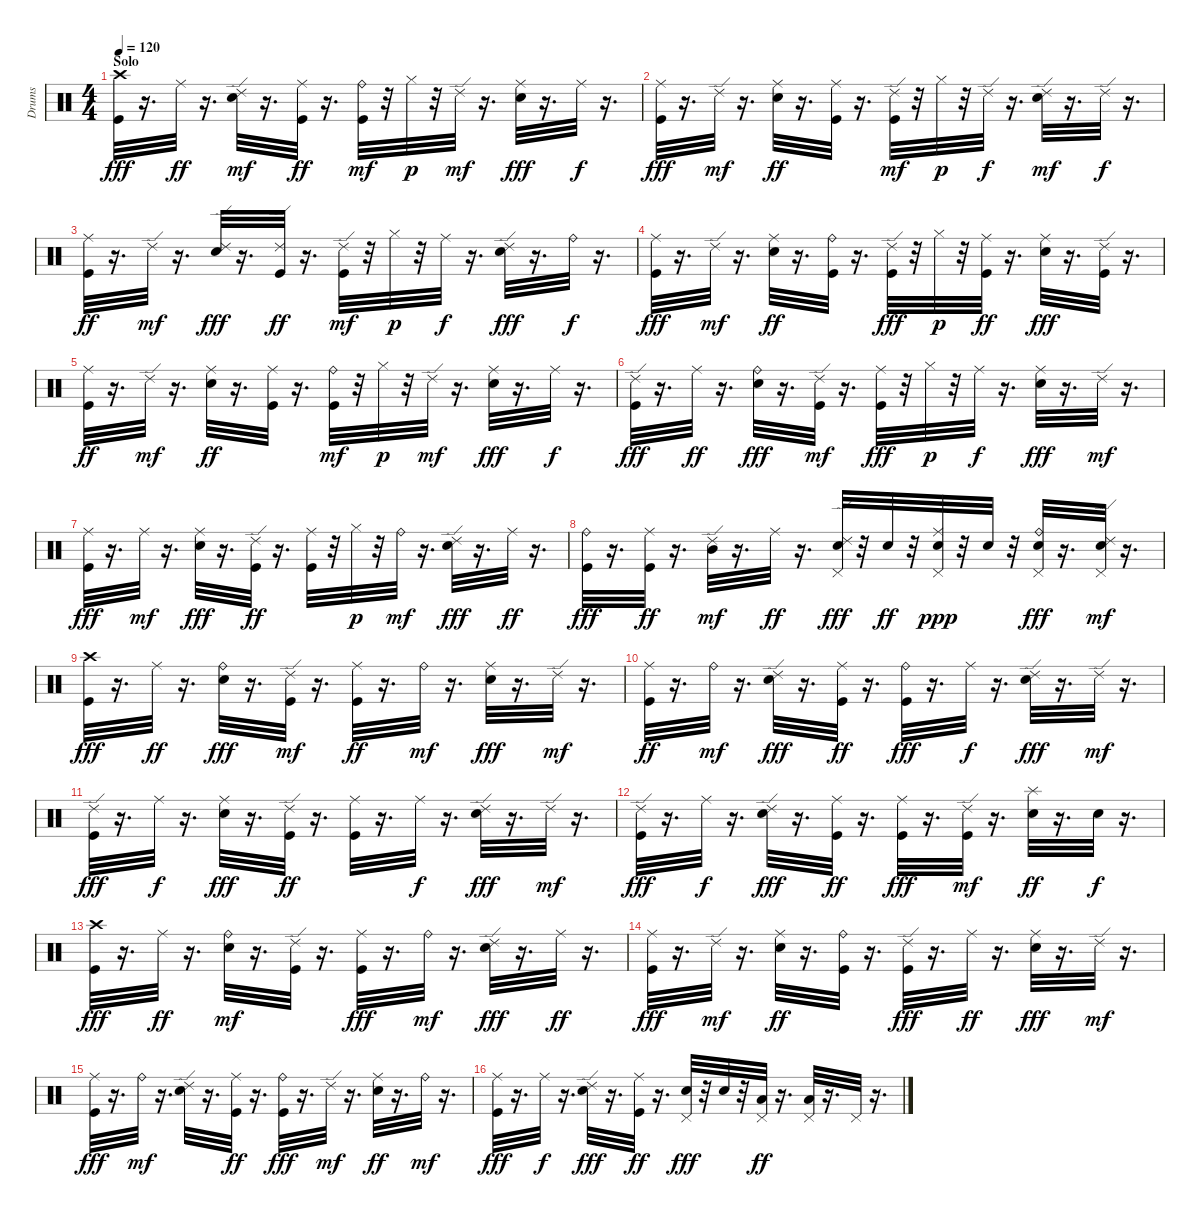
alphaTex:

\track ("Drums" "Drums") {instrument percussion}
\staff {score}
\articulation defaults
\ts (4 4)
\section ("" "Solo")
\tempo 120
\clef neutral
\ks c
("Crash high (hit)" "Kick (hit)").32{dy fff} r.16{d} "Ride (middle)".32{dy ff} r.16{d} ("Electric Snare (hit)" "Ride (edge) 2").32{dy mf} r.16{d} ("Ride (middle)" "Kick (hit)").32{dy ff} r.16{d} ("Kick (hit)" "Ride (bell)").32{dy mf} r.32 "Hi-Hat (closed)".32{dy p} r.32 "Ride (edge) 2".32{dy mf} r.16{d} ("Ride (middle)" "Electric Snare (hit)").32{dy fff} r.16{d} "Ride (middle)".32{dy f} r.16{d} |
("Ride (middle)" "Kick (hit)").32{dy fff} r.16{d} "Ride (edge) 2".32{dy mf} r.16{d} ("Electric Snare (hit)" "Ride (middle)").32{dy ff} r.16{d} ("Ride (middle)" "Kick (hit)").32 r.16{d} ("Kick (hit)" "Ride (edge) 2").32{dy mf} r.32 "Hi-Hat (closed)".32{dy p} r.32 "Ride (edge) 2".32{dy f} r.16{d} ("Electric Snare (hit)" "Ride (edge) 2").32{dy mf} r.16{d} "Ride (edge) 2".32{dy f} r.16{d} |
("Kick (hit)" "Ride (middle)").32{dy ff} r.16{d} "Ride (edge) 2".32{dy mf} r.16{d} ("Ride (edge) 2" "Electric Snare (hit)").32{dy fff} r.16{d} ("Kick (hit)" "Ride (edge) 2").32{dy ff} r.16{d} ("Kick (hit)" "Ride (edge) 2").32{dy mf} r.32 "Hi-Hat (closed)".32{dy p} r.32 "Ride (middle)".32{dy f} r.16{d} ("Ride (edge) 2" "Electric Snare (hit)").32{dy fff} r.16{d} "Ride (bell)".32{dy f} r.16{d} |
("Ride (middle)" "Kick (hit)").32{dy fff} r.16{d} "Ride (edge) 2".32{dy mf} r.16{d} ("Electric Snare (hit)" "Ride (middle)").32{dy ff} r.16{d} ("Ride (bell)" "Kick (hit)").32 r.16{d} ("Ride (edge) 2" "Kick (hit)").32{dy fff} r.32 "Hi-Hat (closed)".32{dy p} r.32 ("Kick (hit)" "Ride (middle)").32{dy ff} r.16{d} ("Ride (middle)" "Electric Snare (hit)").32{dy fff} r.16{d} ("Ride (edge) 2" "Kick (hit)").32 r.16{d} |
("Kick (hit)" "Ride (middle)").32{dy ff} r.16{d} "Ride (edge) 2".32{dy mf} r.16{d} ("Electric Snare (hit)" "Ride (middle)").32{dy ff} r.16{d} ("Ride (middle)" "Kick (hit)").32 r.16{d} ("Kick (hit)" "Ride (bell)").32{dy mf} r.32 "Hi-Hat (closed)".32{dy p} r.32 "Ride (edge) 2".32{dy mf} r.16{d} ("Ride (middle)" "Electric Snare (hit)").32{dy fff} r.16{d} "Ride (middle)".32{dy f} r.16{d} |
("Ride (edge) 2" "Kick (hit)").32{dy fff} r.16{d} "Ride (middle)".32{dy ff} r.16{d} ("Ride (bell)" "Electric Snare (hit)").32{dy fff} r.16{d} ("Kick (hit)" "Ride (edge) 2").32{dy mf} r.16{d} ("Ride (middle)" "Kick (hit)").32{dy fff} r.32 "Hi-Hat (closed)".32{dy p} r.32 "Ride (middle)".32{dy f} r.16{d} ("Electric Snare (hit)" "Ride (middle)").32{dy fff} r.16{d} "Ride (edge) 2".32{dy mf} r.16{d} |
("Ride (middle)" "Kick (hit)").32{dy fff} r.16{d} "Ride (middle)".32{dy mf} r.16{d} ("Ride (middle)" "Electric Snare (hit)").32{dy fff} r.16{d} ("Ride (edge) 2" "Kick (hit)").32{dy ff} r.16{d} ("Kick (hit)" "Ride (middle)").32 r.32 "Hi-Hat (closed)".32{dy p} r.32 "Ride (bell)".32{dy mf} r.16{d} ("Ride (edge) 2" "Electric Snare (hit)").32{dy fff} r.16{d} "Ride (middle)".32{dy ff} r.16{d} |
("Ride (bell)" "Kick (hit)").32{dy fff} r.16{d} ("Kick (hit)" "Ride (middle)").32{dy ff} r.16{d} ("Mid Tom (hit)" "Ride (edge) 2").32{dy mf} r.16{d} "Ride (middle)".32{dy ff} r.16{d} ("Ride (edge) 2" "Pedal Hi-Hat (hit)" "Electric Snare (hit)").32{dy fff} r.32 "Electric Snare (hit)".32{dy ff} r.32 ("Ride (middle)" "Pedal Hi-Hat (hit)" "Electric Snare (hit)").32{dy ppp} r.32 "Electric Snare (hit)".32 r.32 ("Ride (bell)" "Pedal Hi-Hat (hit)" "Electric Snare (hit)").32{dy fff} r.16{d} ("Electric Snare (hit)" "Ride (edge) 2" "Pedal Hi-Hat (hit)").32{dy mf} r.16{d} |
("Crash high (hit)" "Kick (hit)").32{dy fff} r.16{d} "Ride (middle)".32{dy ff} r.16{d} ("Ride (bell)" "Electric Snare (hit)").32{dy fff} r.16{d} ("Kick (hit)" "Ride (edge) 2").32{dy mf} r.16{d} ("Kick (hit)" "Ride (middle)").32{dy ff} r.16{d} "Ride (bell)".32{dy mf} r.16{d} ("Ride (middle)" "Electric Snare (hit)").32{dy fff} r.16{d} "Ride (edge) 2".32{dy mf} r.16{d} |
("Kick (hit)" "Ride (middle)").32{dy ff} r.16{d} "Ride (bell)".32{dy mf} r.16{d} ("Ride (edge) 2" "Electric Snare (hit)").32{dy fff} r.16{d} ("Ride (middle)" "Kick (hit)").32{dy ff} r.16{d} ("Ride (bell)" "Kick (hit)").32{dy fff} r.16{d} "Ride (middle)".32{dy f} r.16{d} ("Ride (edge) 2" "Electric Snare (hit)").32{dy fff} r.16{d} "Ride (edge) 2".32{dy mf} r.16{d} |
("Ride (edge) 2" "Kick (hit)").32{dy fff} r.16{d} "Ride (middle)".32{dy f} r.16{d} ("Ride (middle)" "Electric Snare (hit)").32{dy fff} r.16{d} ("Ride (edge) 2" "Kick (hit)").32{dy ff} r.16{d} ("Kick (hit)" "Ride (middle)").32 r.16{d} "Ride (middle)".32{dy f} r.16{d} ("Ride (edge) 2" "Electric Snare (hit)").32{dy fff} r.16{d} "Ride (edge) 2".32{dy mf} r.16{d} |
("Kick (hit)" "Ride (edge) 2").32{dy fff} r.16{d} "Ride (middle)".32{dy f} r.16{d} ("Ride (edge) 2" "Electric Snare (hit)").32{dy fff} r.16{d} ("Ride (middle)" "Kick (hit)").32{dy ff} r.16{d} ("Kick (hit)" "Ride (middle)").32{dy fff} r.16{d} ("Kick (hit)" "Ride (edge) 2").32{dy mf} r.16{d} ("Electric Snare (hit)" "Splash (hit)").32{dy ff} r.16{d} "Electric Snare (hit)".32{dy f} r.16{d} |
("Crash high (hit)" "Kick (hit)").32{dy fff} r.16{d} "Ride (middle)".32{dy ff} r.16{d} ("Electric Snare (hit)" "Ride (bell)").32{dy mf} r.16{d} ("Kick (hit)" "Ride (edge) 2").32 r.16{d} ("Ride (middle)" "Kick (hit)").32{dy fff} r.16{d} "Ride (bell)".32{dy mf} r.16{d} ("Ride (edge) 2" "Electric Snare (hit)").32{dy fff} r.16{d} "Ride (middle)".32{dy ff} r.16{d} |
("Kick (hit)" "Ride (middle)").32{dy fff} r.16{d} "Ride (edge) 2".32{dy mf} r.16{d} ("Electric Snare (hit)" "Ride (middle)").32{dy ff} r.16{d} ("Ride (bell)" "Kick (hit)").32 r.16{d} ("Ride (edge) 2" "Kick (hit)").32{dy fff} r.16{d} "Ride (middle)".32{dy ff} r.16{d} ("Ride (middle)" "Electric Snare (hit)").32{dy fff} r.16{d} "Ride (edge) 2".32{dy mf} r.16{d} |
("Ride (middle)" "Kick (hit)").32{dy fff} r.16{d} "Ride (bell)".32{dy mf} r.16{d} ("Electric Snare (hit)" "Ride (edge) 2").32 r.16{d} ("Ride (middle)" "Kick (hit)").32{dy ff} r.16{d} ("Ride (bell)" "Kick (hit)").32{dy fff} r.16{d} "Ride (edge) 2".32{dy mf} r.16{d} ("Electric Snare (hit)" "Ride (middle)").32{dy ff} r.16{d} "Ride (bell)".32{dy mf} r.16{d} |
("Ride (middle)" "Kick (hit)").32{dy fff} r.16{d} "Ride (middle)".32{dy f} r.16{d} ("Electric Snare (hit)" "Ride (edge) 2").32{dy fff} r.16{d} ("Ride (middle)" "Kick (hit)").32{dy ff} r.16{d} ("Electric Snare (hit)" "Pedal Hi-Hat (hit)").32{dy fff} r.32 "Electric Snare (hit)".32 r.32 ("Low Tom (hit)" "Pedal Hi-Hat (hit)").32{dy ff} r.16{d} ("Low Floor Tom (hit)" "Pedal Hi-Hat (hit)").32 r.16{d} "Pedal Hi-Hat (hit)".32 r.16{d}
